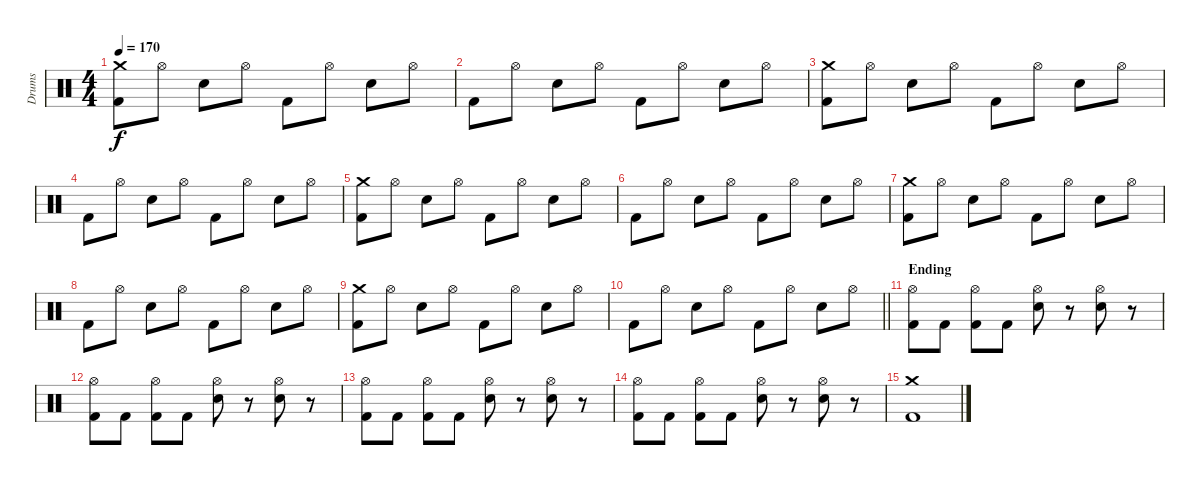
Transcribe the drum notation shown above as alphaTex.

\track ("Drums" "Drums") {instrument percussion}
\staff {score}
\articulation defaults
\ts (4 4)
\tempo 170
\clef neutral
\ks c
("Crash medium (hit)" "Kick (hit) 2").8{dy f} "Hi-Hat (open)".8 "Electric Snare (hit)".8 "Hi-Hat (open)".8 "Kick (hit) 2".8 "Hi-Hat (open)".8 "Electric Snare (hit)".8 "Hi-Hat (open)".8 |
"Kick (hit) 2".8 "Hi-Hat (open)".8 "Electric Snare (hit)".8 "Hi-Hat (open)".8 "Kick (hit) 2".8 "Hi-Hat (open)".8 "Electric Snare (hit)".8 "Hi-Hat (open)".8 |
("Crash medium (hit)" "Kick (hit) 2").8 "Hi-Hat (open)".8 "Electric Snare (hit)".8 "Hi-Hat (open)".8 "Kick (hit) 2".8 "Hi-Hat (open)".8 "Electric Snare (hit)".8 "Hi-Hat (open)".8 |
"Kick (hit) 2".8 "Hi-Hat (open)".8 "Electric Snare (hit)".8 "Hi-Hat (open)".8 "Kick (hit) 2".8 "Hi-Hat (open)".8 "Electric Snare (hit)".8 "Hi-Hat (open)".8 |
("Crash medium (hit)" "Kick (hit) 2").8 "Hi-Hat (open)".8 "Electric Snare (hit)".8 "Hi-Hat (open)".8 "Kick (hit) 2".8 "Hi-Hat (open)".8 "Electric Snare (hit)".8 "Hi-Hat (open)".8 |
"Kick (hit) 2".8 "Hi-Hat (open)".8 "Electric Snare (hit)".8 "Hi-Hat (open)".8 "Kick (hit) 2".8 "Hi-Hat (open)".8 "Electric Snare (hit)".8 "Hi-Hat (open)".8 |
("Crash medium (hit)" "Kick (hit) 2").8 "Hi-Hat (open)".8 "Electric Snare (hit)".8 "Hi-Hat (open)".8 "Kick (hit) 2".8 "Hi-Hat (open)".8 "Electric Snare (hit)".8 "Hi-Hat (open)".8 |
"Kick (hit) 2".8 "Hi-Hat (open)".8 "Electric Snare (hit)".8 "Hi-Hat (open)".8 "Kick (hit) 2".8 "Hi-Hat (open)".8 "Electric Snare (hit)".8 "Hi-Hat (open)".8 |
("Crash medium (hit)" "Kick (hit) 2").8 "Hi-Hat (open)".8 "Electric Snare (hit)".8 "Hi-Hat (open)".8 "Kick (hit) 2".8 "Hi-Hat (open)".8 "Electric Snare (hit)".8 "Hi-Hat (open)".8 |
\barLineRight lightlight "Kick (hit) 2".8 "Hi-Hat (open)".8 "Electric Snare (hit)".8 "Hi-Hat (open)".8 "Kick (hit) 2".8 "Hi-Hat (open)".8 "Electric Snare (hit)".8 "Hi-Hat (open)".8
|
\section ("" "Ending")
("Hi-Hat (open)" "Kick (hit) 2").8 "Kick (hit) 2".8 ("Hi-Hat (open)" "Kick (hit) 2").8 "Kick (hit) 2".8 ("Hi-Hat (open)" "Electric Snare (hit)").8 r.8 ("Hi-Hat (open)" "Electric Snare (hit)").8 r.8 |
("Hi-Hat (open)" "Kick (hit) 2").8 "Kick (hit) 2".8 ("Hi-Hat (open)" "Kick (hit) 2").8 "Kick (hit) 2".8 ("Hi-Hat (open)" "Electric Snare (hit)").8 r.8 ("Hi-Hat (open)" "Electric Snare (hit)").8 r.8 |
("Hi-Hat (open)" "Kick (hit) 2").8 "Kick (hit) 2".8 ("Hi-Hat (open)" "Kick (hit) 2").8 "Kick (hit) 2".8 ("Hi-Hat (open)" "Electric Snare (hit)").8 r.8 ("Hi-Hat (open)" "Electric Snare (hit)").8 r.8 |
("Hi-Hat (open)" "Kick (hit) 2").8 "Kick (hit) 2".8 ("Hi-Hat (open)" "Kick (hit) 2").8 "Kick (hit) 2".8 ("Hi-Hat (open)" "Electric Snare (hit)").8 r.8 ("Hi-Hat (open)" "Electric Snare (hit)").8 r.8 |
("Crash medium (hit)" "Kick (hit) 2").1
